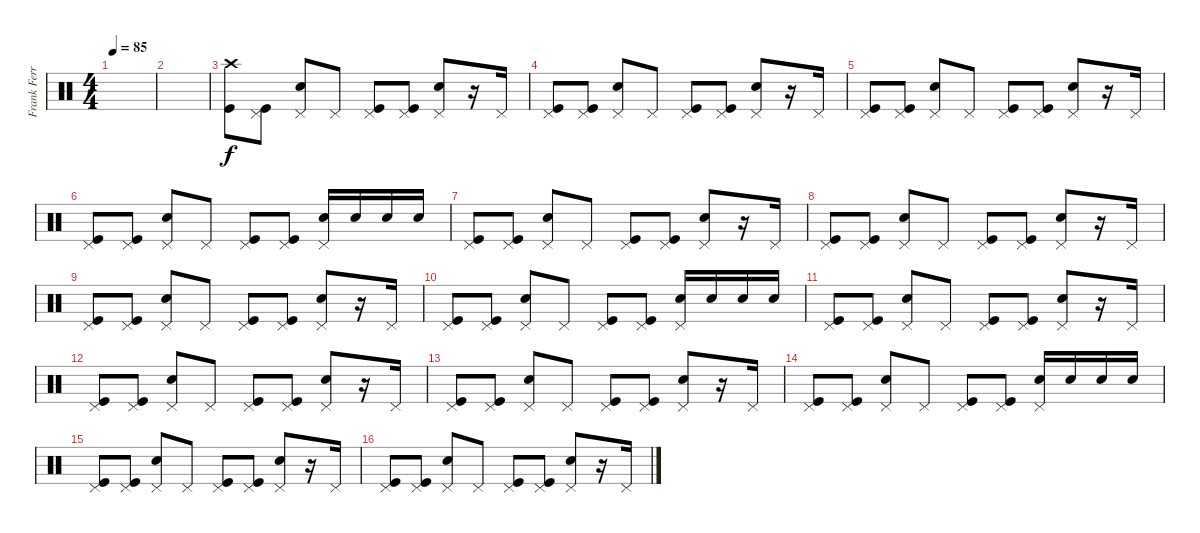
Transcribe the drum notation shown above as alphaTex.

\track ("Frank Ferrer" "Frank Ferr") {instrument percussion}
\staff {score}
\articulation defaults
\ts (4 4)
\tempo 85
\clef neutral
\ks c
|
|
("Kick (hit)" "Crash high (hit)").8 ("Kick (hit)" "Pedal Hi-Hat (hit)").8 ("Snare (hit) 2" "Pedal Hi-Hat (hit)").8 "Pedal Hi-Hat (hit)".8 ("Kick (hit)" "Pedal Hi-Hat (hit)").8 ("Kick (hit)" "Pedal Hi-Hat (hit)").8 ("Snare (hit) 2" "Pedal Hi-Hat (hit)").8 r.16 "Pedal Hi-Hat (hit)".16 |
("Kick (hit)" "Pedal Hi-Hat (hit)").8 ("Kick (hit)" "Pedal Hi-Hat (hit)").8 ("Snare (hit) 2" "Pedal Hi-Hat (hit)").8 "Pedal Hi-Hat (hit)".8 ("Kick (hit)" "Pedal Hi-Hat (hit)").8 ("Kick (hit)" "Pedal Hi-Hat (hit)").8 ("Snare (hit) 2" "Pedal Hi-Hat (hit)").8 r.16 "Pedal Hi-Hat (hit)".16 |
("Kick (hit)" "Pedal Hi-Hat (hit)").8 ("Kick (hit)" "Pedal Hi-Hat (hit)").8 ("Snare (hit) 2" "Pedal Hi-Hat (hit)").8 "Pedal Hi-Hat (hit)".8 ("Kick (hit)" "Pedal Hi-Hat (hit)").8 ("Kick (hit)" "Pedal Hi-Hat (hit)").8 ("Snare (hit) 2" "Pedal Hi-Hat (hit)").8 r.16 "Pedal Hi-Hat (hit)".16 |
("Kick (hit)" "Pedal Hi-Hat (hit)").8 ("Kick (hit)" "Pedal Hi-Hat (hit)").8 ("Snare (hit) 2" "Pedal Hi-Hat (hit)").8 "Pedal Hi-Hat (hit)".8 ("Kick (hit)" "Pedal Hi-Hat (hit)").8 ("Kick (hit)" "Pedal Hi-Hat (hit)").8 ("Snare (hit) 2" "Pedal Hi-Hat (hit)").16 "Snare (hit) 2".16 "Snare (hit) 2".16 "Snare (hit) 2".16 |
("Kick (hit)" "Pedal Hi-Hat (hit)").8 ("Kick (hit)" "Pedal Hi-Hat (hit)").8 ("Snare (hit) 2" "Pedal Hi-Hat (hit)").8 "Pedal Hi-Hat (hit)".8 ("Kick (hit)" "Pedal Hi-Hat (hit)").8 ("Kick (hit)" "Pedal Hi-Hat (hit)").8 ("Snare (hit) 2" "Pedal Hi-Hat (hit)").8 r.16 "Pedal Hi-Hat (hit)".16 |
("Kick (hit)" "Pedal Hi-Hat (hit)").8 ("Kick (hit)" "Pedal Hi-Hat (hit)").8 ("Snare (hit) 2" "Pedal Hi-Hat (hit)").8 "Pedal Hi-Hat (hit)".8 ("Kick (hit)" "Pedal Hi-Hat (hit)").8 ("Kick (hit)" "Pedal Hi-Hat (hit)").8 ("Snare (hit) 2" "Pedal Hi-Hat (hit)").8 r.16 "Pedal Hi-Hat (hit)".16 |
("Kick (hit)" "Pedal Hi-Hat (hit)").8 ("Kick (hit)" "Pedal Hi-Hat (hit)").8 ("Snare (hit) 2" "Pedal Hi-Hat (hit)").8 "Pedal Hi-Hat (hit)".8 ("Kick (hit)" "Pedal Hi-Hat (hit)").8 ("Kick (hit)" "Pedal Hi-Hat (hit)").8 ("Snare (hit) 2" "Pedal Hi-Hat (hit)").8 r.16 "Pedal Hi-Hat (hit)".16 |
("Kick (hit)" "Pedal Hi-Hat (hit)").8 ("Kick (hit)" "Pedal Hi-Hat (hit)").8 ("Snare (hit) 2" "Pedal Hi-Hat (hit)").8 "Pedal Hi-Hat (hit)".8 ("Kick (hit)" "Pedal Hi-Hat (hit)").8 ("Kick (hit)" "Pedal Hi-Hat (hit)").8 ("Snare (hit) 2" "Pedal Hi-Hat (hit)").16 "Snare (hit) 2".16 "Snare (hit) 2".16 "Snare (hit) 2".16 |
("Kick (hit)" "Pedal Hi-Hat (hit)").8 ("Kick (hit)" "Pedal Hi-Hat (hit)").8 ("Snare (hit) 2" "Pedal Hi-Hat (hit)").8 "Pedal Hi-Hat (hit)".8 ("Kick (hit)" "Pedal Hi-Hat (hit)").8 ("Kick (hit)" "Pedal Hi-Hat (hit)").8 ("Snare (hit) 2" "Pedal Hi-Hat (hit)").8 r.16 "Pedal Hi-Hat (hit)".16 |
("Kick (hit)" "Pedal Hi-Hat (hit)").8 ("Kick (hit)" "Pedal Hi-Hat (hit)").8 ("Snare (hit) 2" "Pedal Hi-Hat (hit)").8 "Pedal Hi-Hat (hit)".8 ("Kick (hit)" "Pedal Hi-Hat (hit)").8 ("Kick (hit)" "Pedal Hi-Hat (hit)").8 ("Snare (hit) 2" "Pedal Hi-Hat (hit)").8 r.16 "Pedal Hi-Hat (hit)".16 |
("Kick (hit)" "Pedal Hi-Hat (hit)").8 ("Kick (hit)" "Pedal Hi-Hat (hit)").8 ("Snare (hit) 2" "Pedal Hi-Hat (hit)").8 "Pedal Hi-Hat (hit)".8 ("Kick (hit)" "Pedal Hi-Hat (hit)").8 ("Kick (hit)" "Pedal Hi-Hat (hit)").8 ("Snare (hit) 2" "Pedal Hi-Hat (hit)").8 r.16 "Pedal Hi-Hat (hit)".16 |
("Kick (hit)" "Pedal Hi-Hat (hit)").8 ("Kick (hit)" "Pedal Hi-Hat (hit)").8 ("Snare (hit) 2" "Pedal Hi-Hat (hit)").8 "Pedal Hi-Hat (hit)".8 ("Kick (hit)" "Pedal Hi-Hat (hit)").8 ("Kick (hit)" "Pedal Hi-Hat (hit)").8 ("Snare (hit) 2" "Pedal Hi-Hat (hit)").16 "Snare (hit) 2".16 "Snare (hit) 2".16 "Snare (hit) 2".16 |
("Kick (hit)" "Pedal Hi-Hat (hit)").8 ("Kick (hit)" "Pedal Hi-Hat (hit)").8 ("Snare (hit) 2" "Pedal Hi-Hat (hit)").8 "Pedal Hi-Hat (hit)".8 ("Kick (hit)" "Pedal Hi-Hat (hit)").8 ("Kick (hit)" "Pedal Hi-Hat (hit)").8 ("Snare (hit) 2" "Pedal Hi-Hat (hit)").8 r.16 "Pedal Hi-Hat (hit)".16 |
("Kick (hit)" "Pedal Hi-Hat (hit)").8 ("Kick (hit)" "Pedal Hi-Hat (hit)").8 ("Snare (hit) 2" "Pedal Hi-Hat (hit)").8 "Pedal Hi-Hat (hit)".8 ("Kick (hit)" "Pedal Hi-Hat (hit)").8 ("Kick (hit)" "Pedal Hi-Hat (hit)").8 ("Snare (hit) 2" "Pedal Hi-Hat (hit)").8 r.16 "Pedal Hi-Hat (hit)".16
